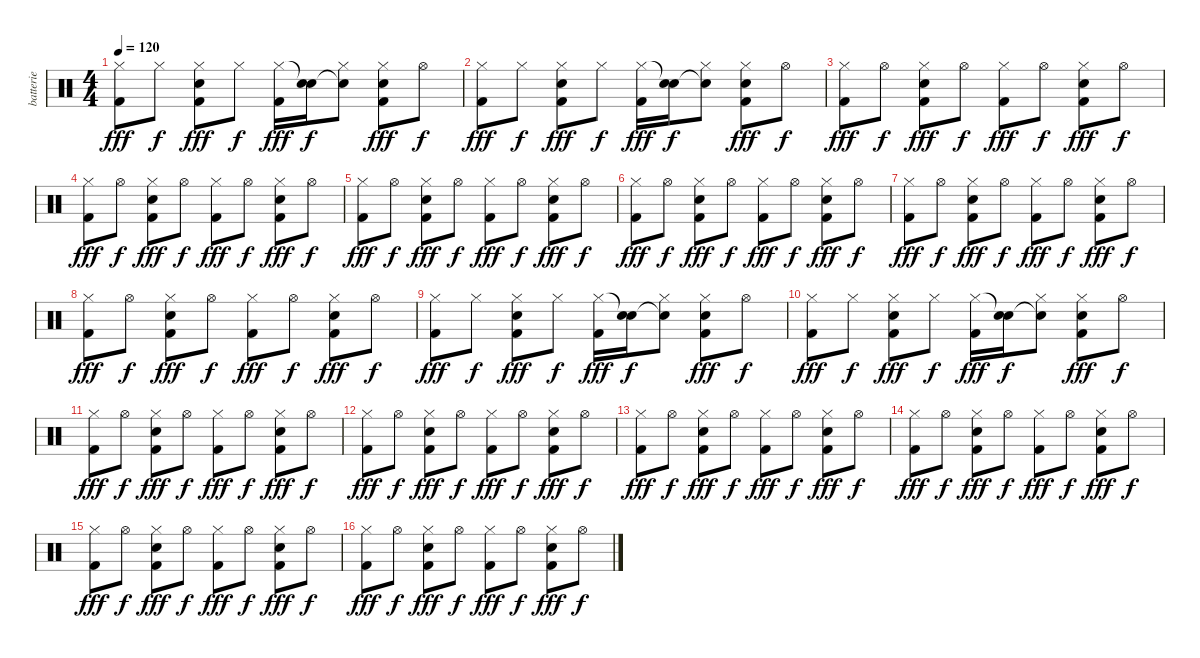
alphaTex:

\track ("batterie" "batterie") {instrument percussion}
\staff {score}
\articulation defaults
\ts (4 4)
\tempo 120
\clef neutral
\ks c
("Hi-Hat (closed)" "Kick (hit) 2").8{dy fff} "Hi-Hat (closed)".8{dy f} ("Hi-Hat (closed)" "Electric Snare (hit)" "Kick (hit) 2").8{dy fff} "Hi-Hat (closed)".8{dy f} ("Hi-Hat (closed)" "Kick (hit) 2").16{dy fff} ("Snare (hit)"{t} "Electric Snare (hit)").16{dy f} ("Hi-Hat (closed)" "Electric Snare (hit)"{t}).8 ("Hi-Hat (closed)" "Electric Snare (hit)" "Kick (hit) 2").8{dy fff} "Hi-Hat (open)".8{dy f} |
("Hi-Hat (closed)" "Kick (hit) 2").8{dy fff} "Hi-Hat (closed)".8{dy f} ("Hi-Hat (closed)" "Electric Snare (hit)" "Kick (hit) 2").8{dy fff} "Hi-Hat (closed)".8{dy f} ("Hi-Hat (closed)" "Kick (hit) 2").16{dy fff} ("Snare (hit)"{t} "Electric Snare (hit)").16{dy f} ("Hi-Hat (closed)" "Electric Snare (hit)"{t}).8 ("Hi-Hat (closed)" "Electric Snare (hit)" "Kick (hit) 2").8{dy fff} "Hi-Hat (open)".8{dy f} |
("Hi-Hat (closed)" "Kick (hit) 2").8{dy fff} "Hi-Hat (open)".8{dy f} ("Hi-Hat (closed)" "Electric Snare (hit)" "Kick (hit) 2").8{dy fff} "Hi-Hat (open)".8{dy f} ("Hi-Hat (closed)" "Kick (hit) 2").8{dy fff} "Hi-Hat (open)".8{dy f} ("Hi-Hat (closed)" "Electric Snare (hit)" "Kick (hit) 2").8{dy fff} "Hi-Hat (open)".8{dy f} |
("Hi-Hat (closed)" "Kick (hit) 2").8{dy fff} "Hi-Hat (open)".8{dy f} ("Hi-Hat (closed)" "Electric Snare (hit)" "Kick (hit) 2").8{dy fff} "Hi-Hat (open)".8{dy f} ("Hi-Hat (closed)" "Kick (hit) 2").8{dy fff} "Hi-Hat (open)".8{dy f} ("Hi-Hat (closed)" "Electric Snare (hit)" "Kick (hit) 2").8{dy fff} "Hi-Hat (open)".8{dy f} |
("Hi-Hat (closed)" "Kick (hit) 2").8{dy fff} "Hi-Hat (open)".8{dy f} ("Hi-Hat (closed)" "Electric Snare (hit)" "Kick (hit) 2").8{dy fff} "Hi-Hat (open)".8{dy f} ("Hi-Hat (closed)" "Kick (hit) 2").8{dy fff} "Hi-Hat (open)".8{dy f} ("Hi-Hat (closed)" "Electric Snare (hit)" "Kick (hit) 2").8{dy fff} "Hi-Hat (open)".8{dy f} |
("Hi-Hat (closed)" "Kick (hit) 2").8{dy fff} "Hi-Hat (open)".8{dy f} ("Hi-Hat (closed)" "Electric Snare (hit)" "Kick (hit) 2").8{dy fff} "Hi-Hat (open)".8{dy f} ("Hi-Hat (closed)" "Kick (hit) 2").8{dy fff} "Hi-Hat (open)".8{dy f} ("Hi-Hat (closed)" "Electric Snare (hit)" "Kick (hit) 2").8{dy fff} "Hi-Hat (open)".8{dy f} |
("Hi-Hat (closed)" "Kick (hit) 2").8{dy fff} "Hi-Hat (open)".8{dy f} ("Hi-Hat (closed)" "Electric Snare (hit)" "Kick (hit) 2").8{dy fff} "Hi-Hat (open)".8{dy f} ("Hi-Hat (closed)" "Kick (hit) 2").8{dy fff} "Hi-Hat (open)".8{dy f} ("Hi-Hat (closed)" "Electric Snare (hit)" "Kick (hit) 2").8{dy fff} "Hi-Hat (open)".8{dy f} |
("Hi-Hat (closed)" "Kick (hit) 2").8{dy fff} "Hi-Hat (open)".8{dy f} ("Hi-Hat (closed)" "Electric Snare (hit)" "Kick (hit) 2").8{dy fff} "Hi-Hat (open)".8{dy f} ("Hi-Hat (closed)" "Kick (hit) 2").8{dy fff} "Hi-Hat (open)".8{dy f} ("Hi-Hat (closed)" "Electric Snare (hit)" "Kick (hit) 2").8{dy fff} "Hi-Hat (open)".8{dy f} |
("Hi-Hat (closed)" "Kick (hit) 2").8{dy fff} "Hi-Hat (closed)".8{dy f} ("Hi-Hat (closed)" "Electric Snare (hit)" "Kick (hit) 2").8{dy fff} "Hi-Hat (closed)".8{dy f} ("Hi-Hat (closed)" "Kick (hit) 2").16{dy fff} ("Snare (hit)"{t} "Electric Snare (hit)").16{dy f} ("Hi-Hat (closed)" "Electric Snare (hit)"{t}).8 ("Hi-Hat (closed)" "Electric Snare (hit)" "Kick (hit) 2").8{dy fff} "Hi-Hat (open)".8{dy f} |
("Hi-Hat (closed)" "Kick (hit) 2").8{dy fff} "Hi-Hat (closed)".8{dy f} ("Hi-Hat (closed)" "Electric Snare (hit)" "Kick (hit) 2").8{dy fff} "Hi-Hat (closed)".8{dy f} ("Hi-Hat (closed)" "Kick (hit) 2").16{dy fff} ("Snare (hit)"{t} "Electric Snare (hit)").16{dy f} ("Hi-Hat (closed)" "Electric Snare (hit)"{t}).8 ("Hi-Hat (closed)" "Electric Snare (hit)" "Kick (hit) 2").8{dy fff} "Hi-Hat (open)".8{dy f} |
("Hi-Hat (closed)" "Kick (hit) 2").8{dy fff} "Hi-Hat (open)".8{dy f} ("Hi-Hat (closed)" "Electric Snare (hit)" "Kick (hit) 2").8{dy fff} "Hi-Hat (open)".8{dy f} ("Hi-Hat (closed)" "Kick (hit) 2").8{dy fff} "Hi-Hat (open)".8{dy f} ("Hi-Hat (closed)" "Electric Snare (hit)" "Kick (hit) 2").8{dy fff} "Hi-Hat (open)".8{dy f} |
("Hi-Hat (closed)" "Kick (hit) 2").8{dy fff} "Hi-Hat (open)".8{dy f} ("Hi-Hat (closed)" "Electric Snare (hit)" "Kick (hit) 2").8{dy fff} "Hi-Hat (open)".8{dy f} ("Hi-Hat (closed)" "Kick (hit) 2").8{dy fff} "Hi-Hat (open)".8{dy f} ("Hi-Hat (closed)" "Electric Snare (hit)" "Kick (hit) 2").8{dy fff} "Hi-Hat (open)".8{dy f} |
("Hi-Hat (closed)" "Kick (hit) 2").8{dy fff} "Hi-Hat (open)".8{dy f} ("Hi-Hat (closed)" "Electric Snare (hit)" "Kick (hit) 2").8{dy fff} "Hi-Hat (open)".8{dy f} ("Hi-Hat (closed)" "Kick (hit) 2").8{dy fff} "Hi-Hat (open)".8{dy f} ("Hi-Hat (closed)" "Electric Snare (hit)" "Kick (hit) 2").8{dy fff} "Hi-Hat (open)".8{dy f} |
("Hi-Hat (closed)" "Kick (hit) 2").8{dy fff} "Hi-Hat (open)".8{dy f} ("Hi-Hat (closed)" "Electric Snare (hit)" "Kick (hit) 2").8{dy fff} "Hi-Hat (open)".8{dy f} ("Hi-Hat (closed)" "Kick (hit) 2").8{dy fff} "Hi-Hat (open)".8{dy f} ("Hi-Hat (closed)" "Electric Snare (hit)" "Kick (hit) 2").8{dy fff} "Hi-Hat (open)".8{dy f} |
("Hi-Hat (closed)" "Kick (hit) 2").8{dy fff} "Hi-Hat (open)".8{dy f} ("Hi-Hat (closed)" "Electric Snare (hit)" "Kick (hit) 2").8{dy fff} "Hi-Hat (open)".8{dy f} ("Hi-Hat (closed)" "Kick (hit) 2").8{dy fff} "Hi-Hat (open)".8{dy f} ("Hi-Hat (closed)" "Electric Snare (hit)" "Kick (hit) 2").8{dy fff} "Hi-Hat (open)".8{dy f} |
("Hi-Hat (closed)" "Kick (hit) 2").8{dy fff} "Hi-Hat (open)".8{dy f} ("Hi-Hat (closed)" "Electric Snare (hit)" "Kick (hit) 2").8{dy fff} "Hi-Hat (open)".8{dy f} ("Hi-Hat (closed)" "Kick (hit) 2").8{dy fff} "Hi-Hat (open)".8{dy f} ("Hi-Hat (closed)" "Electric Snare (hit)" "Kick (hit) 2").8{dy fff} "Hi-Hat (open)".8{dy f}
